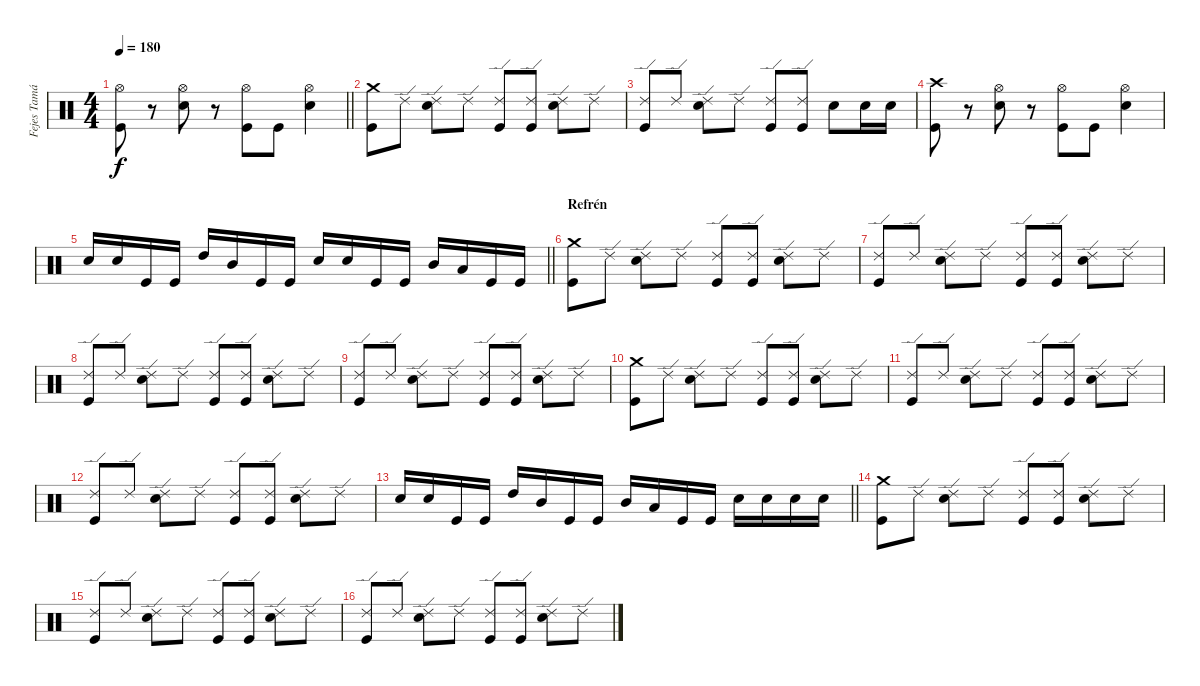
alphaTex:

\track ("Fejes Tamás - Dob" "Fejes Tamá") {instrument percussion}
\staff {score}
\articulation defaults
\ts (4 4)
\tempo 180
\clef neutral
\barLineRight lightlight
\ks c
("Hi-Hat (open)" "Kick (hit)").8{dy f} r.8 ("Hi-Hat (open)" "Electric Snare (hit)").8 r.8 ("Hi-Hat (open)" "Kick (hit)").8 "Kick (hit)".8 ("Hi-Hat (open)" "Electric Snare (hit)").4 |
("Crash medium (hit)" "Kick (hit)").8 "Ride (edge) 2".8 ("Ride (edge) 2" "Electric Snare (hit)").8 "Ride (edge) 2".8 ("Ride (edge) 2" "Kick (hit)").8 ("Ride (edge) 2" "Kick (hit)").8 ("Ride (edge) 2" "Electric Snare (hit)").8 "Ride (edge) 2".8 |
("Ride (edge) 2" "Kick (hit)").8 "Ride (edge) 2".8 ("Ride (edge) 2" "Electric Snare (hit)").8 "Ride (edge) 2".8 ("Ride (edge) 2" "Kick (hit)").8 ("Ride (edge) 2" "Kick (hit)").8 "Electric Snare (hit)".8 "Electric Snare (hit)".16 "Electric Snare (hit)".16 |
("Crash high (hit)" "Kick (hit)").8 r.8 ("Hi-Hat (open)" "Electric Snare (hit)").8 r.8 ("Hi-Hat (open)" "Kick (hit)").8 "Kick (hit)".8 ("Hi-Hat (open)" "Electric Snare (hit)").4 |
\barLineRight lightlight "Electric Snare (hit)".16 "Electric Snare (hit)".16 "Kick (hit)".16 "Kick (hit)".16 "High Tom (hit)".16 "Mid Tom (hit)".16 "Kick (hit)".16 "Kick (hit)".16 "Electric Snare (hit)".16 "Electric Snare (hit)".16 "Kick (hit)".16 "Kick (hit)".16 "Mid Tom (hit)".16 "Low Tom (hit)".16 "Kick (hit)".16 "Kick (hit)".16
|
\section ("" "Refrén")
("Crash medium (hit)" "Kick (hit)").8 "Ride (edge) 2".8 ("Ride (edge) 2" "Electric Snare (hit)").8 "Ride (edge) 2".8 ("Ride (edge) 2" "Kick (hit)").8 ("Ride (edge) 2" "Kick (hit)").8 ("Ride (edge) 2" "Electric Snare (hit)").8 "Ride (edge) 2".8 |
("Ride (edge) 2" "Kick (hit)").8 "Ride (edge) 2".8 ("Ride (edge) 2" "Electric Snare (hit)").8 "Ride (edge) 2".8 ("Ride (edge) 2" "Kick (hit)").8 ("Ride (edge) 2" "Kick (hit)").8 ("Ride (edge) 2" "Electric Snare (hit)").8 "Ride (edge) 2".8 |
("Ride (edge) 2" "Kick (hit)").8 "Ride (edge) 2".8 ("Ride (edge) 2" "Electric Snare (hit)").8 "Ride (edge) 2".8 ("Ride (edge) 2" "Kick (hit)").8 ("Ride (edge) 2" "Kick (hit)").8 ("Ride (edge) 2" "Electric Snare (hit)").8 "Ride (edge) 2".8 |
("Ride (edge) 2" "Kick (hit)").8 "Ride (edge) 2".8 ("Ride (edge) 2" "Electric Snare (hit)").8 "Ride (edge) 2".8 ("Ride (edge) 2" "Kick (hit)").8 ("Ride (edge) 2" "Kick (hit)").8 ("Ride (edge) 2" "Electric Snare (hit)").8 "Ride (edge) 2".8 |
("Crash medium (hit)" "Kick (hit)").8 "Ride (edge) 2".8 ("Ride (edge) 2" "Electric Snare (hit)").8 "Ride (edge) 2".8 ("Ride (edge) 2" "Kick (hit)").8 ("Ride (edge) 2" "Kick (hit)").8 ("Ride (edge) 2" "Electric Snare (hit)").8 "Ride (edge) 2".8 |
("Ride (edge) 2" "Kick (hit)").8 "Ride (edge) 2".8 ("Ride (edge) 2" "Electric Snare (hit)").8 "Ride (edge) 2".8 ("Ride (edge) 2" "Kick (hit)").8 ("Ride (edge) 2" "Kick (hit)").8 ("Ride (edge) 2" "Electric Snare (hit)").8 "Ride (edge) 2".8 |
("Ride (edge) 2" "Kick (hit)").8 "Ride (edge) 2".8 ("Ride (edge) 2" "Electric Snare (hit)").8 "Ride (edge) 2".8 ("Ride (edge) 2" "Kick (hit)").8 ("Ride (edge) 2" "Kick (hit)").8 ("Ride (edge) 2" "Electric Snare (hit)").8 "Ride (edge) 2".8 |
\barLineRight lightlight "Electric Snare (hit)".16 "Electric Snare (hit)".16 "Kick (hit)".16 "Kick (hit)".16 "High Tom (hit)".16 "Mid Tom (hit)".16 "Kick (hit)".16 "Kick (hit)".16 "Mid Tom (hit)".16 "Low Tom (hit)".16 "Kick (hit)".16 "Kick (hit)".16 "Electric Snare (hit)".16 "Electric Snare (hit)".16 "Electric Snare (hit)".16 "Electric Snare (hit)".16
|
("Crash medium (hit)" "Kick (hit)").8 "Ride (edge) 2".8 ("Ride (edge) 2" "Electric Snare (hit)").8 "Ride (edge) 2".8 ("Ride (edge) 2" "Kick (hit)").8 ("Ride (edge) 2" "Kick (hit)").8 ("Ride (edge) 2" "Electric Snare (hit)").8 "Ride (edge) 2".8 |
("Ride (edge) 2" "Kick (hit)").8 "Ride (edge) 2".8 ("Ride (edge) 2" "Electric Snare (hit)").8 "Ride (edge) 2".8 ("Ride (edge) 2" "Kick (hit)").8 ("Ride (edge) 2" "Kick (hit)").8 ("Ride (edge) 2" "Electric Snare (hit)").8 "Ride (edge) 2".8 |
("Ride (edge) 2" "Kick (hit)").8 "Ride (edge) 2".8 ("Ride (edge) 2" "Electric Snare (hit)").8 "Ride (edge) 2".8 ("Ride (edge) 2" "Kick (hit)").8 ("Ride (edge) 2" "Kick (hit)").8 ("Ride (edge) 2" "Electric Snare (hit)").8 "Ride (edge) 2".8
